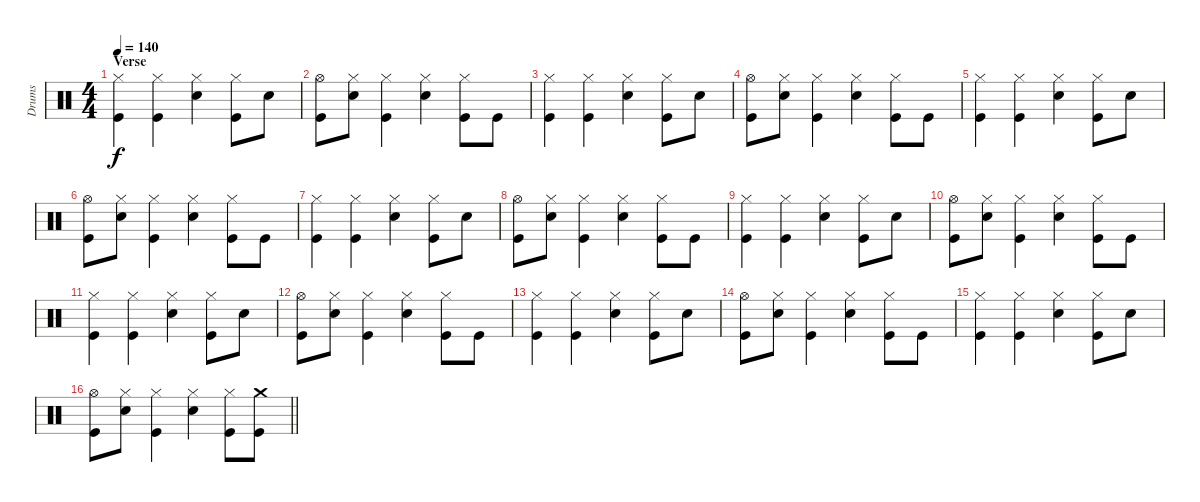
\track ("Drums" "Drums") {instrument percussion}
\staff {score}
\articulation defaults
\ts (4 4)
\section ("" "Verse")
\tempo 140
\clef neutral
\ks c
("Hi-Hat (closed)" "Kick (hit)").4{dy f} ("Hi-Hat (closed)" "Kick (hit)").4 ("Hi-Hat (closed)" "Snare (hit) 2").4 ("Hi-Hat (closed)" "Kick (hit)").8 "Snare (hit) 2".8 |
("Hi-Hat (open)" "Kick (hit)").8 ("Hi-Hat (closed)" "Snare (hit) 2").8 ("Hi-Hat (closed)" "Kick (hit)").4 ("Hi-Hat (closed)" "Snare (hit) 2").4 ("Hi-Hat (closed)" "Kick (hit)").8 "Kick (hit)".8 |
("Hi-Hat (closed)" "Kick (hit)").4 ("Hi-Hat (closed)" "Kick (hit)").4 ("Hi-Hat (closed)" "Snare (hit) 2").4 ("Hi-Hat (closed)" "Kick (hit)").8 "Snare (hit) 2".8 |
("Hi-Hat (open)" "Kick (hit)").8 ("Hi-Hat (closed)" "Snare (hit) 2").8 ("Hi-Hat (closed)" "Kick (hit)").4 ("Hi-Hat (closed)" "Snare (hit) 2").4 ("Hi-Hat (closed)" "Kick (hit)").8 "Kick (hit)".8 |
("Hi-Hat (closed)" "Kick (hit)").4 ("Hi-Hat (closed)" "Kick (hit)").4 ("Hi-Hat (closed)" "Snare (hit) 2").4 ("Hi-Hat (closed)" "Kick (hit)").8 "Snare (hit) 2".8 |
("Hi-Hat (open)" "Kick (hit)").8 ("Hi-Hat (closed)" "Snare (hit) 2").8 ("Hi-Hat (closed)" "Kick (hit)").4 ("Hi-Hat (closed)" "Snare (hit) 2").4 ("Hi-Hat (closed)" "Kick (hit)").8 "Kick (hit)".8 |
("Hi-Hat (closed)" "Kick (hit)").4 ("Hi-Hat (closed)" "Kick (hit)").4 ("Hi-Hat (closed)" "Snare (hit) 2").4 ("Hi-Hat (closed)" "Kick (hit)").8 "Snare (hit) 2".8 |
("Hi-Hat (open)" "Kick (hit)").8 ("Hi-Hat (closed)" "Snare (hit) 2").8 ("Hi-Hat (closed)" "Kick (hit)").4 ("Hi-Hat (closed)" "Snare (hit) 2").4 ("Hi-Hat (closed)" "Kick (hit)").8 "Kick (hit)".8 |
("Hi-Hat (closed)" "Kick (hit)").4 ("Hi-Hat (closed)" "Kick (hit)").4 ("Hi-Hat (closed)" "Snare (hit) 2").4 ("Hi-Hat (closed)" "Kick (hit)").8 "Snare (hit) 2".8 |
("Hi-Hat (open)" "Kick (hit)").8 ("Hi-Hat (closed)" "Snare (hit) 2").8 ("Hi-Hat (closed)" "Kick (hit)").4 ("Hi-Hat (closed)" "Snare (hit) 2").4 ("Hi-Hat (closed)" "Kick (hit)").8 "Kick (hit)".8 |
("Hi-Hat (closed)" "Kick (hit)").4 ("Hi-Hat (closed)" "Kick (hit)").4 ("Hi-Hat (closed)" "Snare (hit) 2").4 ("Hi-Hat (closed)" "Kick (hit)").8 "Snare (hit) 2".8 |
("Hi-Hat (open)" "Kick (hit)").8 ("Hi-Hat (closed)" "Snare (hit) 2").8 ("Hi-Hat (closed)" "Kick (hit)").4 ("Hi-Hat (closed)" "Snare (hit) 2").4 ("Hi-Hat (closed)" "Kick (hit)").8 "Kick (hit)".8 |
("Hi-Hat (closed)" "Kick (hit)").4 ("Hi-Hat (closed)" "Kick (hit)").4 ("Hi-Hat (closed)" "Snare (hit) 2").4 ("Hi-Hat (closed)" "Kick (hit)").8 "Snare (hit) 2".8 |
("Hi-Hat (open)" "Kick (hit)").8 ("Hi-Hat (closed)" "Snare (hit) 2").8 ("Hi-Hat (closed)" "Kick (hit)").4 ("Hi-Hat (closed)" "Snare (hit) 2").4 ("Hi-Hat (closed)" "Kick (hit)").8 "Kick (hit)".8 |
("Hi-Hat (closed)" "Kick (hit)").4 ("Hi-Hat (closed)" "Kick (hit)").4 ("Hi-Hat (closed)" "Snare (hit) 2").4 ("Hi-Hat (closed)" "Kick (hit)").8 "Snare (hit) 2".8 |
\barLineRight lightlight
("Hi-Hat (open)" "Kick (hit)").8 ("Hi-Hat (closed)" "Snare (hit) 2").8 ("Hi-Hat (closed)" "Kick (hit)").4 ("Hi-Hat (closed)" "Snare (hit) 2").4 ("Hi-Hat (closed)" "Kick (hit)").8 ("Crash medium (hit)" "Kick (hit)").8
